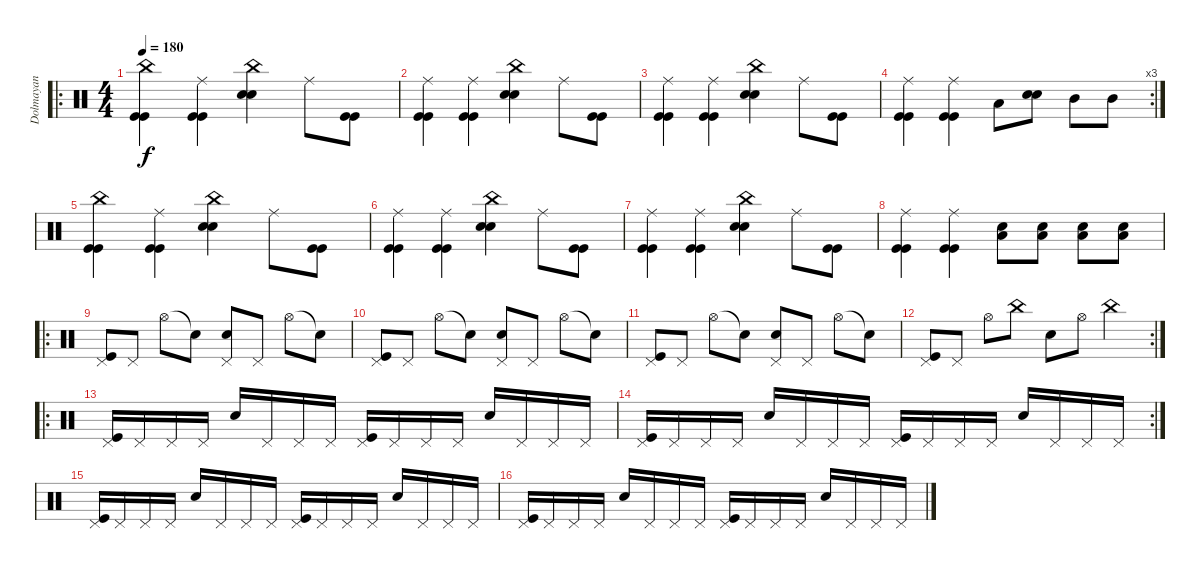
\track ("Dolmayan" "Dolmayan") {instrument percussion}
\staff {score}
\articulation defaults
\ro
\ts (4 4)
\tempo 180
\clef neutral
\ks c
("China (hit)" "Kick (hit)" "Kick (hit)").4{dy f} ("Ride (middle)" "Kick (hit)" "Kick (hit)").4 ("China (hit)" "Snare (hit) 2" "Snare (hit) 2").4 "Ride (middle)".8 ("Kick (hit)" "Kick (hit)").8 |
("Ride (middle)" "Kick (hit)" "Kick (hit)").4 ("Ride (middle)" "Kick (hit)" "Kick (hit)").4 ("China (hit)" "Snare (hit) 2" "Snare (hit) 2").4 "Ride (middle)".8 ("Kick (hit)" "Kick (hit)").8 |
("Ride (middle)" "Kick (hit)" "Kick (hit)").4 ("Ride (middle)" "Kick (hit)" "Kick (hit)").4 ("China (hit)" "Snare (hit) 2" "Snare (hit) 2").4 "Ride (middle)".8 ("Kick (hit)" "Kick (hit)").8 |
\rc 3
("Ride (middle)" "Kick (hit)" "Kick (hit)").4 ("Ride (middle)" "Kick (hit)" "Kick (hit)").4 "Low Tom (hit)".8 ("Snare (hit) 2" "Snare (hit) 2").8 "Mid Tom (hit)".8 "Mid Tom (hit)".8 |
("China (hit)" "Kick (hit)" "Kick (hit)").4 ("Ride (middle)" "Kick (hit)" "Kick (hit)").4 ("China (hit)" "Snare (hit) 2" "Snare (hit) 2").4 "Ride (middle)".8 ("Kick (hit)" "Kick (hit)").8 |
("Ride (middle)" "Kick (hit)" "Kick (hit)").4 ("Ride (middle)" "Kick (hit)" "Kick (hit)").4 ("China (hit)" "Snare (hit) 2" "Snare (hit) 2").4 "Ride (middle)".8 ("Kick (hit)" "Kick (hit)").8 |
("Ride (middle)" "Kick (hit)" "Kick (hit)").4 ("Ride (middle)" "Kick (hit)" "Kick (hit)").4 ("China (hit)" "Snare (hit) 2" "Snare (hit) 2").4 "Ride (middle)".8 ("Kick (hit)" "Kick (hit)").8 |
("Ride (middle)" "Kick (hit)" "Kick (hit)").4 ("Ride (middle)" "Kick (hit)" "Kick (hit)").4 ("Low Floor Tom (hit)" "Snare (hit) 2").8 ("Low Floor Tom (hit)" "Snare (hit) 2").8 ("Low Floor Tom (hit)" "Snare (hit) 2").8 ("Low Floor Tom (hit)" "Snare (hit) 2").8 |
\ro
("Pedal Hi-Hat (hit)" "Kick (hit)").8 "Pedal Hi-Hat (hit)".8 "Hi-Hat (open)".8 "Snare (hit)"{t}.8 ("Pedal Hi-Hat (hit)" "Snare (hit) 2").8 "Pedal Hi-Hat (hit)".8 "Hi-Hat (open)".8 "Snare (hit)"{t}.8 |
("Pedal Hi-Hat (hit)" "Kick (hit)").8 "Pedal Hi-Hat (hit)".8 "Hi-Hat (open)".8 "Snare (hit)"{t}.8 ("Pedal Hi-Hat (hit)" "Snare (hit) 2").8 "Pedal Hi-Hat (hit)".8 "Hi-Hat (open)".8 "Snare (hit)"{t}.8 |
("Pedal Hi-Hat (hit)" "Kick (hit)").8 "Pedal Hi-Hat (hit)".8 "Hi-Hat (open)".8 "Snare (hit)"{t}.8 ("Pedal Hi-Hat (hit)" "Snare (hit) 2").8 "Pedal Hi-Hat (hit)".8 "Hi-Hat (open)".8 "Snare (hit)"{t}.8 |
\rc 2
("Pedal Hi-Hat (hit)" "Kick (hit)").8 "Pedal Hi-Hat (hit)".8 "Hi-Hat (open)".8 "China (hit)".8 "Snare (hit) 2".8 "Hi-Hat (open)".8 "China (hit)".4 |
\ro
("Pedal Hi-Hat (hit)" "Kick (hit)").16 "Pedal Hi-Hat (hit)".16 "Pedal Hi-Hat (hit)".16 "Pedal Hi-Hat (hit)".16 "Snare (hit) 2".16 "Pedal Hi-Hat (hit)".16 "Pedal Hi-Hat (hit)".16 "Pedal Hi-Hat (hit)".16 ("Pedal Hi-Hat (hit)" "Kick (hit)").16 "Pedal Hi-Hat (hit)".16 "Pedal Hi-Hat (hit)".16 "Pedal Hi-Hat (hit)".16 "Snare (hit) 2".16 "Pedal Hi-Hat (hit)".16 "Pedal Hi-Hat (hit)".16 "Pedal Hi-Hat (hit)".16 |
\rc 2
("Pedal Hi-Hat (hit)" "Kick (hit)").16 "Pedal Hi-Hat (hit)".16 "Pedal Hi-Hat (hit)".16 "Pedal Hi-Hat (hit)".16 "Snare (hit) 2".16 "Pedal Hi-Hat (hit)".16 "Pedal Hi-Hat (hit)".16 "Pedal Hi-Hat (hit)".16 ("Pedal Hi-Hat (hit)" "Kick (hit)").16 "Pedal Hi-Hat (hit)".16 "Pedal Hi-Hat (hit)".16 "Pedal Hi-Hat (hit)".16 "Snare (hit) 2".16 "Pedal Hi-Hat (hit)".16 "Pedal Hi-Hat (hit)".16 "Pedal Hi-Hat (hit)".16 |
("Pedal Hi-Hat (hit)" "Kick (hit)").16 "Pedal Hi-Hat (hit)".16 "Pedal Hi-Hat (hit)".16 "Pedal Hi-Hat (hit)".16 "Snare (hit) 2".16 "Pedal Hi-Hat (hit)".16 "Pedal Hi-Hat (hit)".16 "Pedal Hi-Hat (hit)".16 ("Pedal Hi-Hat (hit)" "Kick (hit)").16 "Pedal Hi-Hat (hit)".16 "Pedal Hi-Hat (hit)".16 "Pedal Hi-Hat (hit)".16 "Snare (hit) 2".16 "Pedal Hi-Hat (hit)".16 "Pedal Hi-Hat (hit)".16 "Pedal Hi-Hat (hit)".16 |
("Pedal Hi-Hat (hit)" "Kick (hit)").16 "Pedal Hi-Hat (hit)".16 "Pedal Hi-Hat (hit)".16 "Pedal Hi-Hat (hit)".16 "Snare (hit) 2".16 "Pedal Hi-Hat (hit)".16 "Pedal Hi-Hat (hit)".16 "Pedal Hi-Hat (hit)".16 ("Pedal Hi-Hat (hit)" "Kick (hit)").16 "Pedal Hi-Hat (hit)".16 "Pedal Hi-Hat (hit)".16 "Pedal Hi-Hat (hit)".16 "Snare (hit) 2".16 "Pedal Hi-Hat (hit)".16 "Pedal Hi-Hat (hit)".16 "Pedal Hi-Hat (hit)".16
